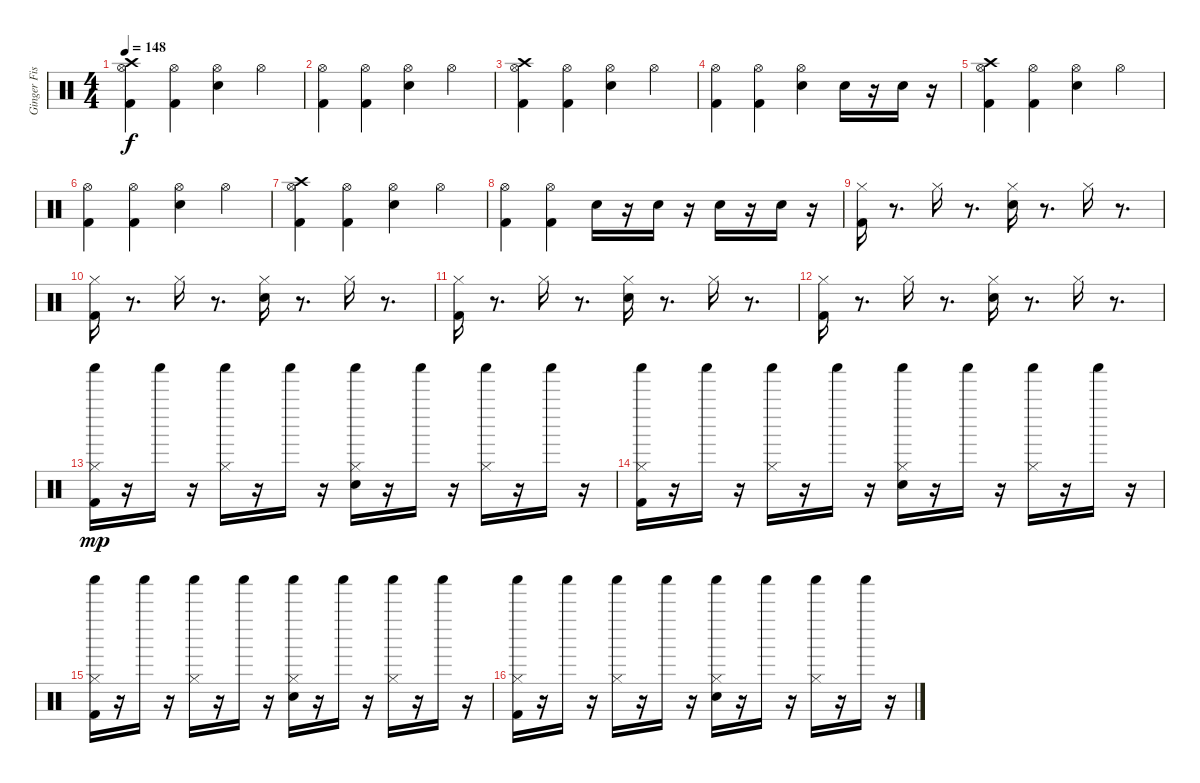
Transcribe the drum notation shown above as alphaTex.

\track ("Ginger Fish (Drums)" "Ginger Fis") {instrument percussion}
\staff {score}
\articulation defaults
\ts (4 4)
\tempo 148
\clef neutral
\ks c
("Hi-Hat (open)" "Kick (hit) 2" "Crash high (hit)").4{dy f} ("Kick (hit) 2" "Hi-Hat (open)").4 ("Hi-Hat (open)" "Snare (hit) 2").4 "Hi-Hat (open)".4 |
("Hi-Hat (open)" "Kick (hit) 2").4 ("Hi-Hat (open)" "Kick (hit) 2").4 ("Hi-Hat (open)" "Snare (hit) 2").4 "Hi-Hat (open)".4 |
("Crash high (hit)" "Hi-Hat (open)" "Kick (hit) 2").4 ("Hi-Hat (open)" "Kick (hit) 2").4 ("Hi-Hat (open)" "Snare (hit) 2").4 "Hi-Hat (open)".4 |
("Hi-Hat (open)" "Kick (hit) 2").4 ("Hi-Hat (open)" "Kick (hit) 2").4 ("Hi-Hat (open)" "Snare (hit) 2").4 "Snare (hit) 2".16 r.16 "Snare (hit) 2".16 r.16 |
("Hi-Hat (open)" "Kick (hit) 2" "Crash high (hit)").4 ("Kick (hit) 2" "Hi-Hat (open)").4 ("Hi-Hat (open)" "Snare (hit) 2").4 "Hi-Hat (open)".4 |
("Hi-Hat (open)" "Kick (hit) 2").4 ("Hi-Hat (open)" "Kick (hit) 2").4 ("Hi-Hat (open)" "Snare (hit) 2").4 "Hi-Hat (open)".4 |
("Crash high (hit)" "Hi-Hat (open)" "Kick (hit) 2").4 ("Hi-Hat (open)" "Kick (hit) 2").4 ("Hi-Hat (open)" "Snare (hit) 2").4 "Hi-Hat (open)".4 |
("Hi-Hat (open)" "Kick (hit) 2").4 ("Hi-Hat (open)" "Kick (hit) 2").4 "Snare (hit) 2".16 r.16 "Snare (hit) 2".16 r.16 "Snare (hit) 2".16 r.16 "Snare (hit) 2".16 r.16 |
("Hi-Hat (closed)" "Kick (hit) 2").16 r.8{d} "Hi-Hat (closed)".16 r.8{d} ("Hi-Hat (closed)" "Snare (hit) 2").16 r.8{d} "Hi-Hat (closed)".16 r.8{d} |
("Hi-Hat (closed)" "Kick (hit) 2").16 r.8{d} "Hi-Hat (closed)".16 r.8{d} ("Snare (hit) 2" "Hi-Hat (closed)").16 r.8{d} "Hi-Hat (closed)".16 r.8{d} |
("Hi-Hat (closed)" "Kick (hit) 2").16 r.8{d} "Hi-Hat (closed)".16 r.8{d} ("Hi-Hat (closed)" "Snare (hit) 2").16 r.8{d} "Hi-Hat (closed)".16 r.8{d} |
("Hi-Hat (closed)" "Kick (hit) 2").16 r.8{d} "Hi-Hat (closed)".16 r.8{d} ("Hi-Hat (closed)" "Snare (hit) 2").16 r.8{d} "Hi-Hat (closed)".16 r.8{d} |
("Shaker (hit)" "Hi-Hat (closed)" "Kick (hit) 2").16{dy mp} r.16 "Shaker (hit)".16 r.16 ("Shaker (hit)" "Hi-Hat (closed)").16 r.16 "Shaker (hit)".16 r.16 ("Shaker (hit)" "Hi-Hat (closed)" "Snare (hit) 2").16 r.16 "Shaker (hit)".16 r.16 ("Shaker (hit)" "Hi-Hat (closed)").16 r.16 "Shaker (hit)".16 r.16 |
("Hi-Hat (closed)" "Kick (hit) 2" "Shaker (hit)").16 r.16 "Shaker (hit)".16 r.16 ("Hi-Hat (closed)" "Shaker (hit)").16 r.16 "Shaker (hit)".16 r.16 ("Snare (hit) 2" "Hi-Hat (closed)" "Shaker (hit)").16 r.16 "Shaker (hit)".16 r.16 ("Hi-Hat (closed)" "Shaker (hit)").16 r.16 "Shaker (hit)".16 r.16 |
("Hi-Hat (closed)" "Kick (hit) 2" "Shaker (hit)").16 r.16 "Shaker (hit)".16 r.16 ("Hi-Hat (closed)" "Shaker (hit)").16 r.16 "Shaker (hit)".16 r.16 ("Hi-Hat (closed)" "Snare (hit) 2" "Shaker (hit)").16 r.16 "Shaker (hit)".16 r.16 ("Hi-Hat (closed)" "Shaker (hit)").16 r.16 "Shaker (hit)".16 r.16 |
("Hi-Hat (closed)" "Kick (hit) 2" "Shaker (hit)").16 r.16 "Shaker (hit)".16 r.16 ("Hi-Hat (closed)" "Shaker (hit)").16 r.16 "Shaker (hit)".16 r.16 ("Hi-Hat (closed)" "Snare (hit) 2" "Shaker (hit)").16 r.16 "Shaker (hit)".16 r.16 ("Hi-Hat (closed)" "Shaker (hit)").16 r.16 "Shaker (hit)".16 r.16
